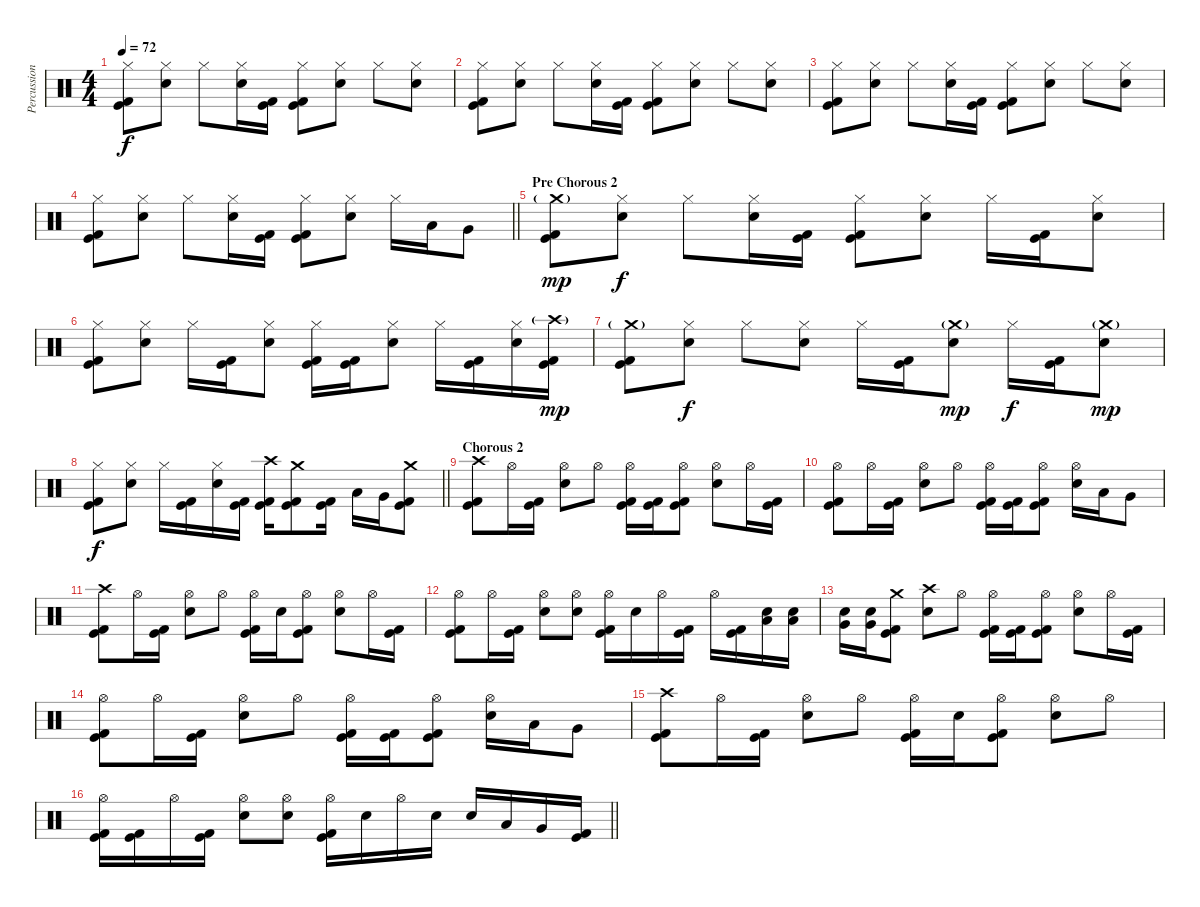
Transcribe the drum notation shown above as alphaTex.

\track ("Percussion" "Percussion") {instrument percussion}
\staff {score}
\articulation defaults
\ts (4 4)
\tempo 72
\clef neutral
\ks c
("Hi-Hat (closed)" "Kick (hit)" "Kick (hit) 2").8{dy f} ("Hi-Hat (closed)" "Electric Snare (hit)").8 "Hi-Hat (closed)".8 ("Hi-Hat (closed)" "Electric Snare (hit)").16 ("Kick (hit)" "Kick (hit) 2").16 ("Hi-Hat (closed)" "Kick (hit)" "Kick (hit) 2").8 ("Hi-Hat (closed)" "Electric Snare (hit)").8 "Hi-Hat (closed)".8 ("Hi-Hat (closed)" "Electric Snare (hit)").8 |
("Hi-Hat (closed)" "Kick (hit)" "Kick (hit) 2").8 ("Hi-Hat (closed)" "Electric Snare (hit)").8 "Hi-Hat (closed)".8 ("Hi-Hat (closed)" "Electric Snare (hit)").16 ("Kick (hit)" "Kick (hit) 2").16 ("Hi-Hat (closed)" "Kick (hit)" "Kick (hit) 2").8 ("Hi-Hat (closed)" "Electric Snare (hit)").8 "Hi-Hat (closed)".8 ("Hi-Hat (closed)" "Electric Snare (hit)").8 |
("Hi-Hat (closed)" "Kick (hit)" "Kick (hit) 2").8 ("Hi-Hat (closed)" "Electric Snare (hit)").8 "Hi-Hat (closed)".8 ("Hi-Hat (closed)" "Electric Snare (hit)").16 ("Kick (hit)" "Kick (hit) 2").16 ("Hi-Hat (closed)" "Kick (hit)" "Kick (hit) 2").8 ("Hi-Hat (closed)" "Electric Snare (hit)").8 "Hi-Hat (closed)".8 ("Hi-Hat (closed)" "Electric Snare (hit)").8 |
\barLineRight lightlight
("Hi-Hat (closed)" "Kick (hit)" "Kick (hit) 2").8 ("Hi-Hat (closed)" "Electric Snare (hit)").8 "Hi-Hat (closed)".8 ("Hi-Hat (closed)" "Electric Snare (hit)").16 ("Kick (hit)" "Kick (hit) 2").16 ("Hi-Hat (closed)" "Kick (hit)" "Kick (hit) 2").8 ("Hi-Hat (closed)" "Electric Snare (hit)").8 "Hi-Hat (closed)".16 "Low Tom (hit)".16 "Very Low Tom (hit)".8 |
\section ("" "Pre Chorous 2")
("Crash medium (hit)"{g} "Kick (hit)" "Kick (hit) 2").8{dy mp} ("Hi-Hat (closed)" "Electric Snare (hit)").8{dy f} "Hi-Hat (closed)".8 ("Hi-Hat (closed)" "Electric Snare (hit)").16 ("Kick (hit)" "Kick (hit) 2").16 ("Hi-Hat (closed)" "Kick (hit)" "Kick (hit) 2").8 ("Hi-Hat (closed)" "Electric Snare (hit)").8 "Hi-Hat (closed)".16 ("Kick (hit)" "Kick (hit) 2").16 ("Hi-Hat (closed)" "Electric Snare (hit)").8 |
("Hi-Hat (closed)" "Kick (hit)" "Kick (hit) 2").8 ("Hi-Hat (closed)" "Electric Snare (hit)").8 "Hi-Hat (closed)".16 ("Kick (hit)" "Kick (hit) 2").16 ("Hi-Hat (closed)" "Electric Snare (hit)").8 ("Hi-Hat (closed)" "Kick (hit)" "Kick (hit) 2").16 ("Kick (hit)" "Kick (hit) 2").16 ("Hi-Hat (closed)" "Electric Snare (hit)").8 "Hi-Hat (closed)".16 ("Kick (hit)" "Kick (hit) 2").16 ("Hi-Hat (closed)" "Electric Snare (hit)").16 ("Crash high (hit)"{g} "Kick (hit)" "Kick (hit) 2").16{dy mp} |
("Crash medium (hit)"{g} "Kick (hit)" "Kick (hit) 2").8 ("Hi-Hat (closed)" "Electric Snare (hit)").8{dy f} "Hi-Hat (closed)".8 ("Hi-Hat (closed)" "Electric Snare (hit)").8 "Hi-Hat (closed)".16 ("Kick (hit)" "Kick (hit) 2").16 ("Crash medium (hit)"{g} "Electric Snare (hit)").8{dy mp} "Hi-Hat (closed)".16{dy f} ("Kick (hit)" "Kick (hit) 2").16 ("Crash medium (hit)"{g} "Electric Snare (hit)").8{dy mp} |
\barLineRight lightlight
("Hi-Hat (closed)" "Kick (hit)" "Kick (hit) 2").8{dy f} ("Hi-Hat (closed)" "Electric Snare (hit)").8 "Hi-Hat (closed)".16 ("Kick (hit)" "Kick (hit) 2").16 ("Hi-Hat (closed)" "Electric Snare (hit)").16 ("Kick (hit)" "Kick (hit) 2").16 ("Crash high (hit)" "Kick (hit)" "Kick (hit) 2").16 ("Crash medium (hit)" "Kick (hit)" "Kick (hit) 2").8 ("Kick (hit)" "Kick (hit) 2").16 "Low Tom (hit)".16 "Very Low Tom (hit)".16 ("Crash medium (hit)" "Kick (hit)" "Kick (hit) 2").8 |
\section ("" "Chorous 2")
("Crash high (hit)" "Kick (hit)" "Kick (hit) 2").8 "Hi-Hat (open)".16 ("Kick (hit)" "Kick (hit) 2").16 ("Hi-Hat (open)" "Electric Snare (hit)").8 "Hi-Hat (open)".8 ("Hi-Hat (open)" "Kick (hit)" "Kick (hit) 2").16 ("Kick (hit)" "Kick (hit) 2").16 ("Hi-Hat (open)" "Kick (hit)" "Kick (hit) 2").8 ("Hi-Hat (open)" "Electric Snare (hit)").8 "Hi-Hat (open)".16 ("Kick (hit)" "Kick (hit) 2").16 |
("Hi-Hat (open)" "Kick (hit)" "Kick (hit) 2").8 "Hi-Hat (open)".16 ("Kick (hit)" "Kick (hit) 2").16 ("Hi-Hat (open)" "Electric Snare (hit)").8 "Hi-Hat (open)".8 ("Hi-Hat (open)" "Kick (hit)" "Kick (hit) 2").16 ("Kick (hit)" "Kick (hit) 2").16 ("Hi-Hat (open)" "Kick (hit)" "Kick (hit) 2").8 ("Hi-Hat (open)" "Electric Snare (hit)").16 "Low Tom (hit)".16 "Very Low Tom (hit)".8 |
("Crash high (hit)" "Kick (hit)" "Kick (hit) 2").8 "Hi-Hat (open)".16 ("Kick (hit)" "Kick (hit) 2").16 ("Hi-Hat (open)" "Electric Snare (hit)").8 "Hi-Hat (open)".8 ("Hi-Hat (open)" "Kick (hit)" "Kick (hit) 2").16 "Electric Snare (hit)".16 ("Hi-Hat (open)" "Kick (hit)" "Kick (hit) 2").8 ("Hi-Hat (open)" "Electric Snare (hit)").8 "Hi-Hat (open)".16 ("Kick (hit)" "Kick (hit) 2").16 |
("Hi-Hat (open)" "Kick (hit)" "Kick (hit) 2").8 "Hi-Hat (open)".16 ("Kick (hit)" "Kick (hit) 2").16 ("Hi-Hat (open)" "Electric Snare (hit)").8 ("Hi-Hat (open)" "Electric Snare (hit)").8 ("Hi-Hat (open)" "Kick (hit)" "Kick (hit) 2").16 "Electric Snare (hit)".16 "Hi-Hat (open)".16 ("Kick (hit)" "Kick (hit) 2").16 "Hi-Hat (open)".16 ("Kick (hit)" "Kick (hit) 2").16 ("Electric Snare (hit)" "Low Tom (hit)").16 ("Electric Snare (hit)" "Low Tom (hit)").16 |
("Electric Snare (hit)" "Very Low Tom (hit)").16 ("Electric Snare (hit)" "Very Low Tom (hit)").16 ("Crash medium (hit)" "Kick (hit)" "Kick (hit) 2").8 ("Crash high (hit)" "Electric Snare (hit)").8 "Hi-Hat (open)".8 ("Hi-Hat (open)" "Kick (hit)" "Kick (hit) 2").16 ("Kick (hit)" "Kick (hit) 2").16 ("Hi-Hat (open)" "Kick (hit)" "Kick (hit) 2").8 ("Hi-Hat (open)" "Electric Snare (hit)").8 "Hi-Hat (open)".16 ("Kick (hit)" "Kick (hit) 2").16 |
("Hi-Hat (open)" "Kick (hit)" "Kick (hit) 2").8 "Hi-Hat (open)".16 ("Kick (hit)" "Kick (hit) 2").16 ("Hi-Hat (open)" "Electric Snare (hit)").8 "Hi-Hat (open)".8 ("Hi-Hat (open)" "Kick (hit)" "Kick (hit) 2").16 ("Kick (hit)" "Kick (hit) 2").16 ("Hi-Hat (open)" "Kick (hit)" "Kick (hit) 2").8 ("Hi-Hat (open)" "Electric Snare (hit)").16 "Low Tom (hit)".16 "Very Low Tom (hit)".8 |
("Crash high (hit)" "Kick (hit)" "Kick (hit) 2").8 "Hi-Hat (open)".16 ("Kick (hit)" "Kick (hit) 2").16 ("Hi-Hat (open)" "Electric Snare (hit)").8 "Hi-Hat (open)".8 ("Hi-Hat (open)" "Kick (hit)" "Kick (hit) 2").16 "Electric Snare (hit)".16 ("Hi-Hat (open)" "Kick (hit)" "Kick (hit) 2").8 ("Hi-Hat (open)" "Electric Snare (hit)").8 "Hi-Hat (open)".8 |
\barLineRight lightlight
("Hi-Hat (open)" "Kick (hit)" "Kick (hit) 2").16 ("Kick (hit)" "Kick (hit) 2").16 "Hi-Hat (open)".16 ("Kick (hit)" "Kick (hit) 2").16 ("Hi-Hat (open)" "Electric Snare (hit)").8 ("Hi-Hat (open)" "Electric Snare (hit)").8 ("Hi-Hat (open)" "Kick (hit)" "Kick (hit) 2").16 "Electric Snare (hit)".16 "Hi-Hat (open)".16 "Electric Snare (hit)".16 "Electric Snare (hit)".16 "Low Tom (hit)".16 "Very Low Tom (hit)".16 ("Kick (hit)" "Kick (hit) 2").16
